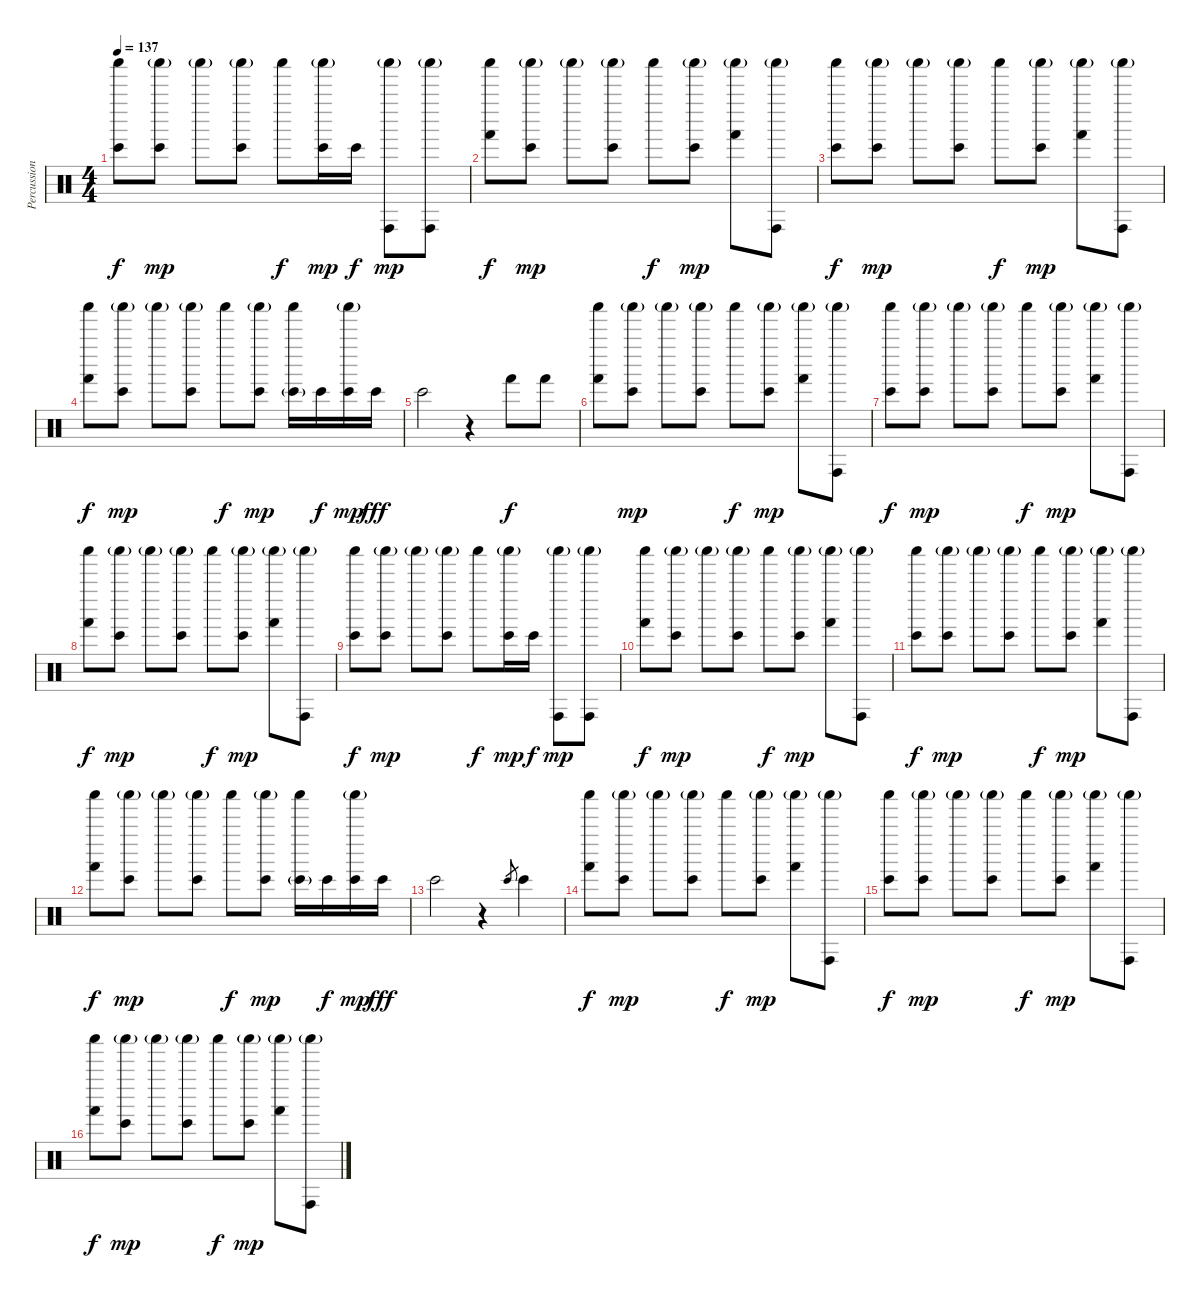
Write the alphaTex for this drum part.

\track ("Percussions" "Percussion") {instrument percussion}
\staff {score}
\articulation defaults
\ts (4 4)
\tempo 137
\clef neutral
\ks c
("Bongo High (hit)" "Shaker (hit)").8{dy f} ("Bongo High (hit)" "Shaker (hit)"{g}).8{dy mp} "Shaker (hit)"{g}.8 ("Bongo High (hit)" "Shaker (hit)"{g}).8 "Shaker (hit)".8{dy f} ("Bongo High (hit)" "Shaker (hit)"{g}).16{dy mp} "Bongo High (hit)".16{dy f} ("Conga high (hit)" "Shaker (hit)"{g}).8{dy mp} ("Conga high (hit)" "Shaker (hit)"{g}).8 |
("Hand (hit)" "Shaker (hit)").8{dy f} ("Bongo High (hit)" "Shaker (hit)"{g}).8{dy mp} "Shaker (hit)"{g}.8 ("Bongo High (hit)" "Shaker (hit)"{g}).8 "Shaker (hit)".8{dy f} ("Bongo High (hit)" "Shaker (hit)"{g}).8{dy mp} ("Hand (hit)" "Shaker (hit)"{g}).8 ("Conga high (hit)" "Shaker (hit)"{g}).8 |
("Bongo High (hit)" "Shaker (hit)").8{dy f} ("Bongo High (hit)" "Shaker (hit)"{g}).8{dy mp} "Shaker (hit)"{g}.8 ("Bongo High (hit)" "Shaker (hit)"{g}).8 "Shaker (hit)".8{dy f} ("Bongo High (hit)" "Shaker (hit)"{g}).8{dy mp} ("Hand (hit)" "Shaker (hit)"{g}).8 ("Conga high (hit)" "Shaker (hit)"{g}).8 |
("Hand (hit)" "Shaker (hit)").8{dy f} ("Bongo High (hit)" "Shaker (hit)"{g}).8{dy mp} "Shaker (hit)"{g}.8 ("Bongo High (hit)" "Shaker (hit)"{g}).8 "Shaker (hit)".8{dy f} ("Bongo High (hit)" "Shaker (hit)"{g}).8{dy mp} ("Bongo High (hit)"{g} "Shaker (hit)").16 "Bongo High (hit)".16{dy f} ("Bongo High (hit)" "Shaker (hit)"{g}).16{dy mp} "Bongo High (hit)".16{dy fff} |
"Bongo High (hit)".2 r.4 "Hand (hit)".8{dy f} "Hand (hit)".8 |
("Hand (hit)" "Shaker (hit)").8 ("Bongo High (hit)" "Shaker (hit)"{g}).8{dy mp} "Shaker (hit)"{g}.8 ("Bongo High (hit)" "Shaker (hit)"{g}).8 "Shaker (hit)".8{dy f} ("Bongo High (hit)" "Shaker (hit)"{g}).8{dy mp} ("Hand (hit)" "Shaker (hit)"{g}).8 ("Conga high (hit)" "Shaker (hit)"{g}).8 |
("Bongo High (hit)" "Shaker (hit)").8{dy f} ("Bongo High (hit)" "Shaker (hit)"{g}).8{dy mp} "Shaker (hit)"{g}.8 ("Bongo High (hit)" "Shaker (hit)"{g}).8 "Shaker (hit)".8{dy f} ("Bongo High (hit)" "Shaker (hit)"{g}).8{dy mp} ("Hand (hit)" "Shaker (hit)"{g}).8 ("Conga high (hit)" "Shaker (hit)"{g}).8 |
("Hand (hit)" "Shaker (hit)").8{dy f} ("Bongo High (hit)" "Shaker (hit)"{g}).8{dy mp} "Shaker (hit)"{g}.8 ("Bongo High (hit)" "Shaker (hit)"{g}).8 "Shaker (hit)".8{dy f} ("Bongo High (hit)" "Shaker (hit)"{g}).8{dy mp} ("Hand (hit)" "Shaker (hit)"{g}).8 ("Conga high (hit)" "Shaker (hit)"{g}).8 |
("Bongo High (hit)" "Shaker (hit)").8{dy f} ("Bongo High (hit)" "Shaker (hit)"{g}).8{dy mp} "Shaker (hit)"{g}.8 ("Bongo High (hit)" "Shaker (hit)"{g}).8 "Shaker (hit)".8{dy f} ("Bongo High (hit)" "Shaker (hit)"{g}).16{dy mp} "Bongo High (hit)".16{dy f} ("Conga high (hit)" "Shaker (hit)"{g}).8{dy mp} ("Conga high (hit)" "Shaker (hit)"{g}).8 |
("Hand (hit)" "Shaker (hit)").8{dy f} ("Bongo High (hit)" "Shaker (hit)"{g}).8{dy mp} "Shaker (hit)"{g}.8 ("Bongo High (hit)" "Shaker (hit)"{g}).8 "Shaker (hit)".8{dy f} ("Bongo High (hit)" "Shaker (hit)"{g}).8{dy mp} ("Hand (hit)" "Shaker (hit)"{g}).8 ("Conga high (hit)" "Shaker (hit)"{g}).8 |
("Bongo High (hit)" "Shaker (hit)").8{dy f} ("Bongo High (hit)" "Shaker (hit)"{g}).8{dy mp} "Shaker (hit)"{g}.8 ("Bongo High (hit)" "Shaker (hit)"{g}).8 "Shaker (hit)".8{dy f} ("Bongo High (hit)" "Shaker (hit)"{g}).8{dy mp} ("Hand (hit)" "Shaker (hit)"{g}).8 ("Conga high (hit)" "Shaker (hit)"{g}).8 |
("Hand (hit)" "Shaker (hit)").8{dy f} ("Bongo High (hit)" "Shaker (hit)"{g}).8{dy mp} "Shaker (hit)"{g}.8 ("Bongo High (hit)" "Shaker (hit)"{g}).8 "Shaker (hit)".8{dy f} ("Bongo High (hit)" "Shaker (hit)"{g}).8{dy mp} ("Bongo High (hit)"{g} "Shaker (hit)").16 "Bongo High (hit)".16{dy f} ("Bongo High (hit)" "Shaker (hit)"{g}).16{dy mp} "Bongo High (hit)".16{dy fff} |
"Bongo High (hit)".2 r.4 "Bongo High (hit)".8{gr} "Bongo High (hit)".4 |
("Hand (hit)" "Shaker (hit)").8{dy f} ("Bongo High (hit)" "Shaker (hit)"{g}).8{dy mp} "Shaker (hit)"{g}.8 ("Bongo High (hit)" "Shaker (hit)"{g}).8 "Shaker (hit)".8{dy f} ("Bongo High (hit)" "Shaker (hit)"{g}).8{dy mp} ("Hand (hit)" "Shaker (hit)"{g}).8 ("Conga high (hit)" "Shaker (hit)"{g}).8 |
("Bongo High (hit)" "Shaker (hit)").8{dy f} ("Bongo High (hit)" "Shaker (hit)"{g}).8{dy mp} "Shaker (hit)"{g}.8 ("Bongo High (hit)" "Shaker (hit)"{g}).8 "Shaker (hit)".8{dy f} ("Bongo High (hit)" "Shaker (hit)"{g}).8{dy mp} ("Hand (hit)" "Shaker (hit)"{g}).8 ("Conga high (hit)" "Shaker (hit)"{g}).8 |
("Hand (hit)" "Shaker (hit)").8{dy f} ("Bongo High (hit)" "Shaker (hit)"{g}).8{dy mp} "Shaker (hit)"{g}.8 ("Bongo High (hit)" "Shaker (hit)"{g}).8 "Shaker (hit)".8{dy f} ("Bongo High (hit)" "Shaker (hit)"{g}).8{dy mp} ("Hand (hit)" "Shaker (hit)"{g}).8 ("Conga high (hit)" "Shaker (hit)"{g}).8
